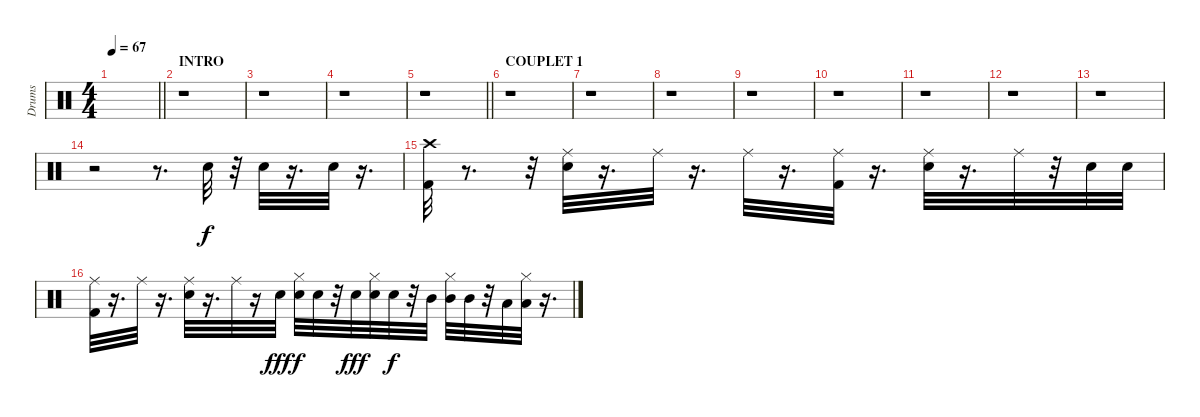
\track ("Drums" "Drums") {instrument percussion}
\staff {score}
\articulation defaults
\ts (4 4)
\tempo 67
\clef neutral
\barLineRight lightlight
\ks c
|
\section ("" "INTRO")
r.1 |
r.1 |
r.1 |
\barLineRight lightlight
r.1 |
\section ("" "COUPLET 1")
r.1 |
r.1 |
r.1 |
r.1 |
r.1 |
r.1 |
r.1 |
r.1 |
r.2 r.8{d} "Snare (hit) 2".32 r.32 "Snare (hit) 2".32 r.16{d} "Snare (hit) 2".32 r.16{d} |
("Kick (hit) 2" "Crash high (hit)").32 r.8{d} r.32 ("Snare (hit) 2" "Ride (middle)").32 r.16{d} "Ride (middle)".32 r.16{d} "Ride (middle)".32 r.16{d} ("Kick (hit) 2" "Ride (middle)").32 r.16{d} ("Snare (hit) 2" "Ride (middle)").32 r.16{d} "Ride (middle)".32 r.32 "Snare (hit) 2".32 "Snare (hit) 2".32 |
("Kick (hit) 2" "Ride (middle)").32 r.16{d} "Ride (middle)".32 r.16{d} ("Snare (hit) 2" "Ride (middle)").32 r.16{d} "Ride (middle)".32 r.16 "Snare (hit) 2".32{dy fff} ("Hi-Hat (closed)" "Snare (hit) 2").32{dy f} "Snare (hit) 2".32 r.32 "Snare (hit) 2".32{dy fff} ("Hi-Hat (closed)" "Snare (hit) 2").32 "Snare (hit) 2".32{dy f} r.32 "Mid Tom (hit)".32 ("Hi-Hat (closed)" "Mid Tom (hit)").32 "Mid Tom (hit)".32 r.32 "Low Tom (hit)".32 ("Hi-Hat (closed)" "Low Tom (hit)").32 r.16{d}
